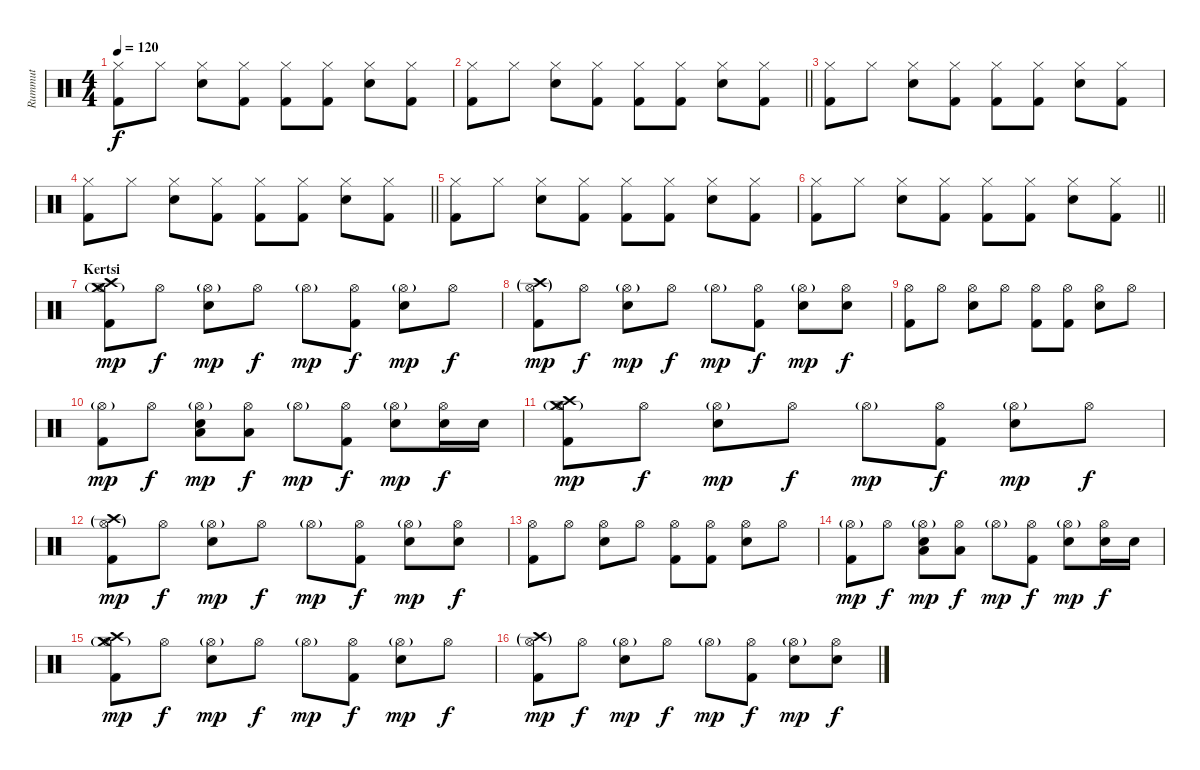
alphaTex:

\track ("Rummut" "Rummut") {instrument percussion}
\staff {score}
\articulation defaults
\ts (4 4)
\tempo 120
\clef neutral
\ks c
("Hi-Hat (closed)" "Kick (hit) 2").8{dy f} "Hi-Hat (closed)".8 ("Snare (hit) 2" "Hi-Hat (closed)").8 ("Kick (hit) 2" "Hi-Hat (closed)").8 ("Kick (hit) 2" "Hi-Hat (closed)").8 ("Kick (hit) 2" "Hi-Hat (closed)").8 ("Snare (hit) 2" "Hi-Hat (closed)").8 ("Kick (hit) 2" "Hi-Hat (closed)").8 |
\barLineRight lightlight
("Hi-Hat (closed)" "Kick (hit) 2").8 "Hi-Hat (closed)".8 ("Snare (hit) 2" "Hi-Hat (closed)").8 ("Kick (hit) 2" "Hi-Hat (closed)").8 ("Kick (hit) 2" "Hi-Hat (closed)").8 ("Kick (hit) 2" "Hi-Hat (closed)").8 ("Snare (hit) 2" "Hi-Hat (closed)").8 ("Kick (hit) 2" "Hi-Hat (closed)").8 |
("Hi-Hat (closed)" "Kick (hit) 2").8 "Hi-Hat (closed)".8 ("Snare (hit) 2" "Hi-Hat (closed)").8 ("Kick (hit) 2" "Hi-Hat (closed)").8 ("Kick (hit) 2" "Hi-Hat (closed)").8 ("Kick (hit) 2" "Hi-Hat (closed)").8 ("Snare (hit) 2" "Hi-Hat (closed)").8 ("Kick (hit) 2" "Hi-Hat (closed)").8 |
\barLineRight lightlight
("Hi-Hat (closed)" "Kick (hit) 2").8 "Hi-Hat (closed)".8 ("Snare (hit) 2" "Hi-Hat (closed)").8 ("Kick (hit) 2" "Hi-Hat (closed)").8 ("Kick (hit) 2" "Hi-Hat (closed)").8 ("Kick (hit) 2" "Hi-Hat (closed)").8 ("Snare (hit) 2" "Hi-Hat (closed)").8 ("Kick (hit) 2" "Hi-Hat (closed)").8 |
("Hi-Hat (closed)" "Kick (hit) 2").8 "Hi-Hat (closed)".8 ("Snare (hit) 2" "Hi-Hat (closed)").8 ("Kick (hit) 2" "Hi-Hat (closed)").8 ("Kick (hit) 2" "Hi-Hat (closed)").8 ("Kick (hit) 2" "Hi-Hat (closed)").8 ("Snare (hit) 2" "Hi-Hat (closed)").8 ("Kick (hit) 2" "Hi-Hat (closed)").8 |
\barLineRight lightlight
("Hi-Hat (closed)" "Kick (hit) 2").8 "Hi-Hat (closed)".8 ("Snare (hit) 2" "Hi-Hat (closed)").8 ("Kick (hit) 2" "Hi-Hat (closed)").8 ("Kick (hit) 2" "Hi-Hat (closed)").8 ("Kick (hit) 2" "Hi-Hat (closed)").8 ("Snare (hit) 2" "Hi-Hat (closed)").8 ("Kick (hit) 2" "Hi-Hat (closed)").8 |
\section ("" "Kertsi")
("Hi-Hat (open)"{g} "Kick (hit) 2" "Crash medium (hit)" "Crash high (hit)").8{dy mp} "Hi-Hat (open)".8{dy f} ("Hi-Hat (open)"{g} "Snare (hit) 2").8{dy mp} "Hi-Hat (open)".8{dy f} "Hi-Hat (open)"{g}.8{dy mp} ("Hi-Hat (open)" "Kick (hit) 2").8{dy f} ("Hi-Hat (open)"{g} "Snare (hit) 2").8{dy mp} "Hi-Hat (open)".8{dy f} |
("Hi-Hat (open)"{g} "Kick (hit) 2" "Crash high (hit)"{g}).8{dy mp} "Hi-Hat (open)".8{dy f} ("Hi-Hat (open)"{g} "Snare (hit) 2").8{dy mp} "Hi-Hat (open)".8{dy f} "Hi-Hat (open)"{g}.8{dy mp} ("Hi-Hat (open)" "Kick (hit) 2").8{dy f} ("Hi-Hat (open)"{g} "Snare (hit) 2").8{dy mp} ("Hi-Hat (open)" "Snare (hit) 2").8{dy f} |
("Hi-Hat (open)" "Kick (hit) 2").8 "Hi-Hat (open)".8 ("Hi-Hat (open)" "Snare (hit) 2").8 "Hi-Hat (open)".8 ("Hi-Hat (open)" "Kick (hit) 2").8 ("Hi-Hat (open)" "Kick (hit) 2").8 ("Hi-Hat (open)" "Snare (hit) 2").8 "Hi-Hat (open)".8 |
("Hi-Hat (open)"{g} "Kick (hit) 2").8{dy mp} "Hi-Hat (open)".8{dy f} ("Hi-Hat (open)"{g} "Snare (hit) 2" "Low Tom (hit)").8{dy mp} ("Hi-Hat (open)" "Low Tom (hit)").8{dy f} "Hi-Hat (open)"{g}.8{dy mp} ("Hi-Hat (open)" "Kick (hit) 2").8{dy f} ("Hi-Hat (open)"{g} "Snare (hit) 2").8{dy mp} ("Hi-Hat (open)" "Snare (hit) 2").16{dy f} "Snare (hit) 2".16 |
("Hi-Hat (open)"{g} "Kick (hit) 2" "Crash medium (hit)" "Crash high (hit)").8{dy mp} "Hi-Hat (open)".8{dy f} ("Hi-Hat (open)"{g} "Snare (hit) 2").8{dy mp} "Hi-Hat (open)".8{dy f} "Hi-Hat (open)"{g}.8{dy mp} ("Hi-Hat (open)" "Kick (hit) 2").8{dy f} ("Hi-Hat (open)"{g} "Snare (hit) 2").8{dy mp} "Hi-Hat (open)".8{dy f} |
("Hi-Hat (open)"{g} "Kick (hit) 2" "Crash high (hit)"{g}).8{dy mp} "Hi-Hat (open)".8{dy f} ("Hi-Hat (open)"{g} "Snare (hit) 2").8{dy mp} "Hi-Hat (open)".8{dy f} "Hi-Hat (open)"{g}.8{dy mp} ("Hi-Hat (open)" "Kick (hit) 2").8{dy f} ("Hi-Hat (open)"{g} "Snare (hit) 2").8{dy mp} ("Hi-Hat (open)" "Snare (hit) 2").8{dy f} |
("Hi-Hat (open)" "Kick (hit) 2").8 "Hi-Hat (open)".8 ("Hi-Hat (open)" "Snare (hit) 2").8 "Hi-Hat (open)".8 ("Hi-Hat (open)" "Kick (hit) 2").8 ("Hi-Hat (open)" "Kick (hit) 2").8 ("Hi-Hat (open)" "Snare (hit) 2").8 "Hi-Hat (open)".8 |
("Hi-Hat (open)"{g} "Kick (hit) 2").8{dy mp} "Hi-Hat (open)".8{dy f} ("Hi-Hat (open)"{g} "Snare (hit) 2" "Low Tom (hit)").8{dy mp} ("Hi-Hat (open)" "Low Tom (hit)").8{dy f} "Hi-Hat (open)"{g}.8{dy mp} ("Hi-Hat (open)" "Kick (hit) 2").8{dy f} ("Hi-Hat (open)"{g} "Snare (hit) 2").8{dy mp} ("Hi-Hat (open)" "Snare (hit) 2").16{dy f} "Snare (hit) 2".16 |
("Hi-Hat (open)"{g} "Kick (hit) 2" "Crash medium (hit)" "Crash high (hit)").8{dy mp} "Hi-Hat (open)".8{dy f} ("Hi-Hat (open)"{g} "Snare (hit) 2").8{dy mp} "Hi-Hat (open)".8{dy f} "Hi-Hat (open)"{g}.8{dy mp} ("Hi-Hat (open)" "Kick (hit) 2").8{dy f} ("Hi-Hat (open)"{g} "Snare (hit) 2").8{dy mp} "Hi-Hat (open)".8{dy f} |
("Hi-Hat (open)"{g} "Kick (hit) 2" "Crash high (hit)"{g}).8{dy mp} "Hi-Hat (open)".8{dy f} ("Hi-Hat (open)"{g} "Snare (hit) 2").8{dy mp} "Hi-Hat (open)".8{dy f} "Hi-Hat (open)"{g}.8{dy mp} ("Hi-Hat (open)" "Kick (hit) 2").8{dy f} ("Hi-Hat (open)"{g} "Snare (hit) 2").8{dy mp} ("Hi-Hat (open)" "Snare (hit) 2").8{dy f}
